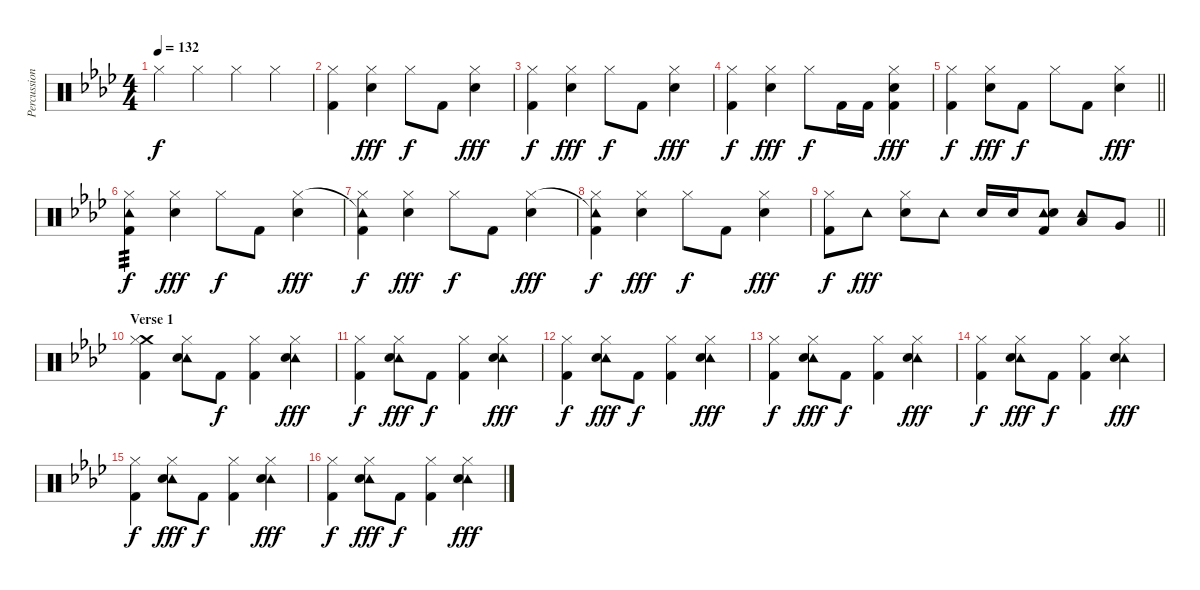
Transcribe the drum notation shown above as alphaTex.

\track ("Percussion - Nigel Olsen/Ray Cooper" "Percussion") {instrument percussion}
\staff {score}
\articulation defaults
\ts (4 4)
\tempo 132
\clef neutral
\ks ab "Hi-Hat (closed)".4{dy f} "Hi-Hat (closed)".4 "Hi-Hat (closed)".4 "Hi-Hat (closed)".4
|
("Hi-Hat (closed)" "Kick (hit) 2").4 ("Hi-Hat (closed)" "Snare (hit) 2").4{dy fff} "Hi-Hat (closed)".8{dy f} "Kick (hit) 2".8 ("Hi-Hat (closed)" "Snare (hit) 2").4{dy fff} |
("Hi-Hat (closed)" "Kick (hit) 2").4{dy f} ("Hi-Hat (closed)" "Snare (hit) 2").4{dy fff} "Hi-Hat (closed)".8{dy f} "Kick (hit) 2".8 ("Hi-Hat (closed)" "Snare (hit) 2").4{dy fff} |
("Hi-Hat (closed)" "Kick (hit) 2").4{dy f} ("Hi-Hat (closed)" "Snare (hit) 2").4{dy fff} "Hi-Hat (closed)".8{dy f} "Kick (hit) 2".16 "Kick (hit) 2".16 ("Hi-Hat (closed)" "Snare (hit) 2" "Kick (hit) 2").4{dy fff} |
\barLineRight lightlight
("Hi-Hat (closed)" "Kick (hit) 2").4{dy f} ("Hi-Hat (closed)" "Snare (hit) 2").8{dy fff} "Kick (hit) 2".8{dy f} "Hi-Hat (closed)".8 "Kick (hit) 2".8 ("Hi-Hat (closed)" "Snare (hit) 2").4{dy fff} |
("Tambourine (hit)" "Hi-Hat (closed)" "Kick (hit) 2").4{tp 3 dy f} ("Hi-Hat (closed)" "Snare (hit) 2").4{dy fff} "Hi-Hat (closed)".8{dy f} "Kick (hit) 2".8 ("Hi-Hat (closed)" "Snare (hit) 2").4{dy fff} |
("Tambourine (hit)"{t} "Hi-Hat (closed)" "Kick (hit) 2").4{dy f} ("Hi-Hat (closed)" "Snare (hit) 2").4{dy fff} "Hi-Hat (closed)".8{dy f} "Kick (hit) 2".8 ("Hi-Hat (closed)" "Snare (hit) 2").4{dy fff} |
("Tambourine (hit)"{t} "Hi-Hat (closed)" "Kick (hit) 2").4{dy f} ("Hi-Hat (closed)" "Snare (hit) 2").4{dy fff} "Hi-Hat (closed)".8{dy f} "Kick (hit) 2".8 ("Hi-Hat (closed)" "Snare (hit) 2").4{dy fff} |
\barLineRight lightlight
("Hi-Hat (closed)" "Kick (hit) 2").8{dy f} "Tambourine (hit)".8{dy fff} ("Hi-Hat (closed)" "Snare (hit) 2").8 "Tambourine (hit)".8 "Snare (hit) 2".16 "Snare (hit) 2".16 ("Tambourine (hit)" "Snare (hit) 2" "Kick (hit) 2").8 ("Tambourine (hit)" "Low Tom (hit)").8 "Very Low Tom (hit)".8 |
\section ("" "Verse 1")
("Crash medium (hit)" "Hi-Hat (closed)" "Kick (hit) 2").4 ("Tambourine (hit)" "Hi-Hat (closed)" "Snare (hit) 2").8 "Kick (hit) 2".8{dy f} ("Hi-Hat (closed)" "Kick (hit) 2").4 ("Tambourine (hit)" "Hi-Hat (closed)" "Snare (hit) 2").4{dy fff} |
("Hi-Hat (closed)" "Kick (hit) 2").4{dy f} ("Tambourine (hit)" "Hi-Hat (closed)" "Snare (hit) 2").8{dy fff} "Kick (hit) 2".8{dy f} ("Hi-Hat (closed)" "Kick (hit) 2").4 ("Tambourine (hit)" "Hi-Hat (closed)" "Snare (hit) 2").4{dy fff} |
("Hi-Hat (closed)" "Kick (hit) 2").4{dy f} ("Tambourine (hit)" "Hi-Hat (closed)" "Snare (hit) 2").8{dy fff} "Kick (hit) 2".8{dy f} ("Hi-Hat (closed)" "Kick (hit) 2").4 ("Tambourine (hit)" "Hi-Hat (closed)" "Snare (hit) 2").4{dy fff} |
("Hi-Hat (closed)" "Kick (hit) 2").4{dy f} ("Tambourine (hit)" "Hi-Hat (closed)" "Snare (hit) 2").8{dy fff} "Kick (hit) 2".8{dy f} ("Hi-Hat (closed)" "Kick (hit) 2").4 ("Tambourine (hit)" "Hi-Hat (closed)" "Snare (hit) 2").4{dy fff} |
("Hi-Hat (closed)" "Kick (hit) 2").4{dy f} ("Tambourine (hit)" "Hi-Hat (closed)" "Snare (hit) 2").8{dy fff} "Kick (hit) 2".8{dy f} ("Hi-Hat (closed)" "Kick (hit) 2").4 ("Tambourine (hit)" "Hi-Hat (closed)" "Snare (hit) 2").4{dy fff} |
("Hi-Hat (closed)" "Kick (hit) 2").4{dy f} ("Tambourine (hit)" "Hi-Hat (closed)" "Snare (hit) 2").8{dy fff} "Kick (hit) 2".8{dy f} ("Hi-Hat (closed)" "Kick (hit) 2").4 ("Tambourine (hit)" "Hi-Hat (closed)" "Snare (hit) 2").4{dy fff} |
("Hi-Hat (closed)" "Kick (hit) 2").4{dy f} ("Tambourine (hit)" "Hi-Hat (closed)" "Snare (hit) 2").8{dy fff} "Kick (hit) 2".8{dy f} ("Hi-Hat (closed)" "Kick (hit) 2").4 ("Tambourine (hit)" "Hi-Hat (closed)" "Snare (hit) 2").4{dy fff}
